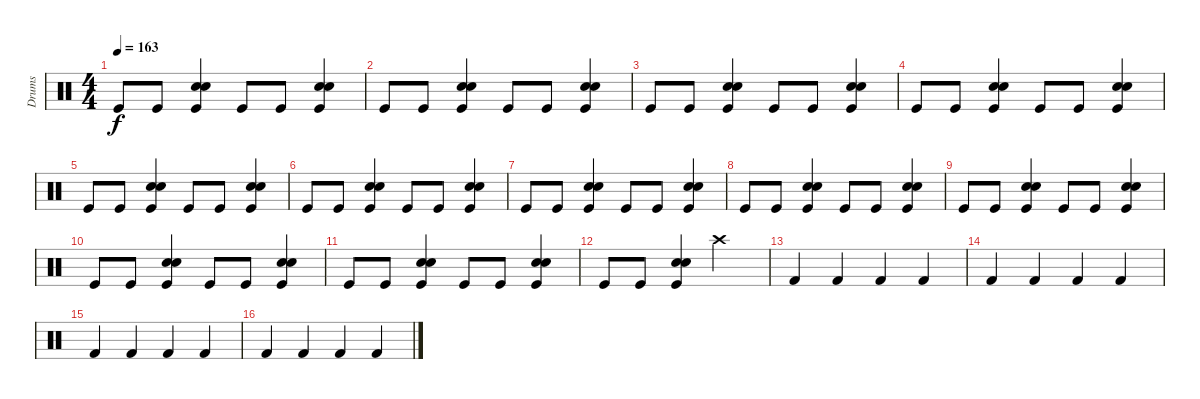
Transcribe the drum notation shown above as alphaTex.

\track ("Drums" "Drums") {instrument percussion}
\staff {score}
\articulation defaults
\ts (4 4)
\tempo 163
\clef neutral
\ks c "Kick (hit)".8{dy f} "Kick (hit)".8
("Kick (hit)" "Electric Snare (hit)" "Electric Snare (hit)").4 "Kick (hit)".8 "Kick (hit)".8 ("Kick (hit)" "Electric Snare (hit)" "Electric Snare (hit)").4 |
"Kick (hit)".8 "Kick (hit)".8 ("Kick (hit)" "Electric Snare (hit)" "Electric Snare (hit)").4 "Kick (hit)".8 "Kick (hit)".8 ("Kick (hit)" "Electric Snare (hit)" "Electric Snare (hit)").4 |
"Kick (hit)".8 "Kick (hit)".8 ("Kick (hit)" "Electric Snare (hit)" "Electric Snare (hit)").4 "Kick (hit)".8 "Kick (hit)".8 ("Kick (hit)" "Electric Snare (hit)" "Electric Snare (hit)").4 |
"Kick (hit)".8 "Kick (hit)".8 ("Kick (hit)" "Electric Snare (hit)" "Electric Snare (hit)").4 "Kick (hit)".8 "Kick (hit)".8 ("Kick (hit)" "Electric Snare (hit)" "Electric Snare (hit)").4 |
"Kick (hit)".8 "Kick (hit)".8 ("Kick (hit)" "Electric Snare (hit)" "Electric Snare (hit)").4 "Kick (hit)".8 "Kick (hit)".8 ("Kick (hit)" "Electric Snare (hit)" "Electric Snare (hit)").4 |
"Kick (hit)".8 "Kick (hit)".8 ("Kick (hit)" "Electric Snare (hit)" "Electric Snare (hit)").4 "Kick (hit)".8 "Kick (hit)".8 ("Kick (hit)" "Electric Snare (hit)" "Electric Snare (hit)").4 |
"Kick (hit)".8 "Kick (hit)".8 ("Kick (hit)" "Electric Snare (hit)" "Electric Snare (hit)").4 "Kick (hit)".8 "Kick (hit)".8 ("Kick (hit)" "Electric Snare (hit)" "Electric Snare (hit)").4 |
"Kick (hit)".8 "Kick (hit)".8 ("Kick (hit)" "Electric Snare (hit)" "Electric Snare (hit)").4 "Kick (hit)".8 "Kick (hit)".8 ("Kick (hit)" "Electric Snare (hit)" "Electric Snare (hit)").4 |
"Kick (hit)".8 "Kick (hit)".8 ("Kick (hit)" "Electric Snare (hit)" "Electric Snare (hit)").4 "Kick (hit)".8 "Kick (hit)".8 ("Kick (hit)" "Electric Snare (hit)" "Electric Snare (hit)").4 |
"Kick (hit)".8 "Kick (hit)".8 ("Kick (hit)" "Electric Snare (hit)" "Electric Snare (hit)").4 "Kick (hit)".8 "Kick (hit)".8 ("Kick (hit)" "Electric Snare (hit)" "Electric Snare (hit)").4 |
"Kick (hit)".8 "Kick (hit)".8 ("Kick (hit)" "Electric Snare (hit)" "Electric Snare (hit)").4 "Kick (hit)".8 "Kick (hit)".8 ("Kick (hit)" "Electric Snare (hit)" "Electric Snare (hit)").4 |
"Kick (hit)".8 "Kick (hit)".8 ("Kick (hit)" "Electric Snare (hit)" "Electric Snare (hit)").4 "Crash high (hit)".2 |
"Kick (hit) 2".4 "Kick (hit) 2".4 "Kick (hit) 2".4 "Kick (hit) 2".4 |
"Kick (hit) 2".4 "Kick (hit) 2".4 "Kick (hit) 2".4 "Kick (hit) 2".4 |
"Kick (hit) 2".4 "Kick (hit) 2".4 "Kick (hit) 2".4 "Kick (hit) 2".4 |
"Kick (hit) 2".4 "Kick (hit) 2".4 "Kick (hit) 2".4 "Kick (hit) 2".4
